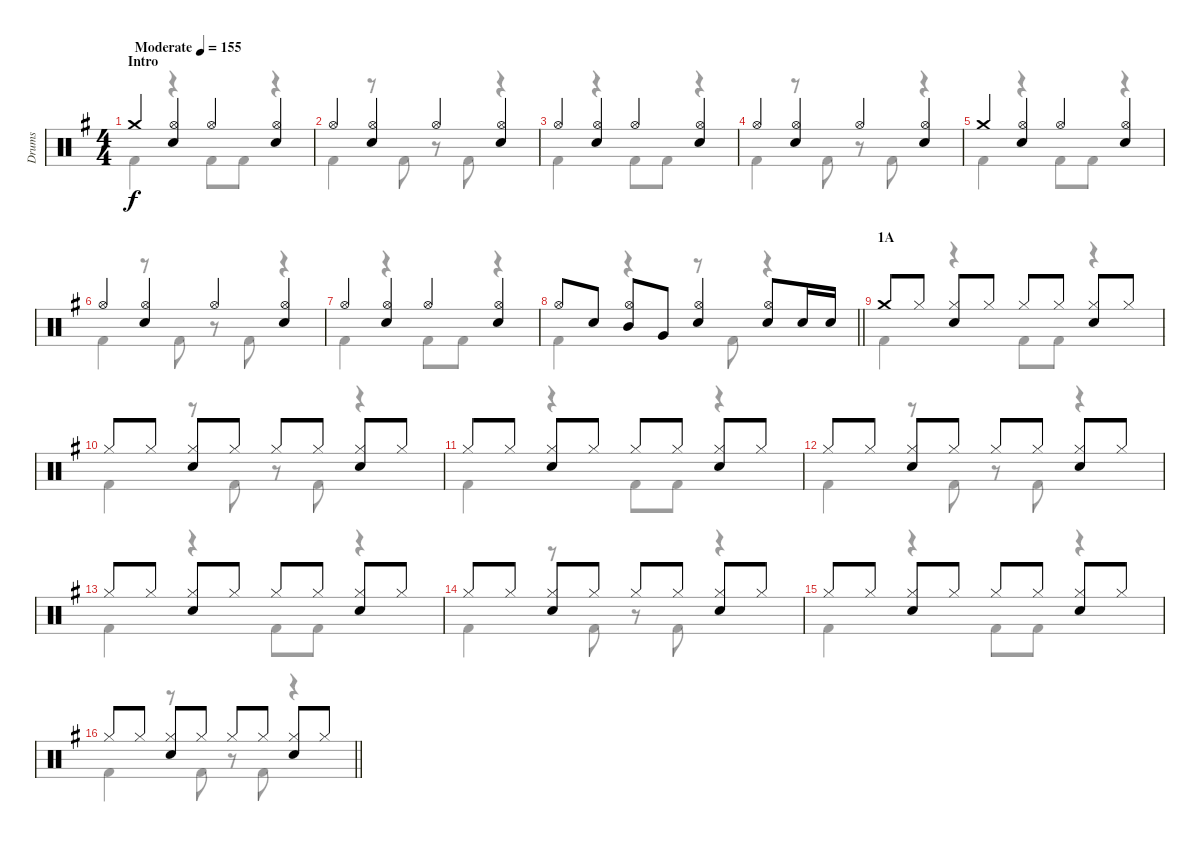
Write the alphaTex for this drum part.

\track ("Drums" "Drums") {instrument percussion}
\staff {score}
\articulation defaults
\voice
\ts (4 4)
\section ("" "Intro")
\tempo (155 "Moderate")
\clef neutral
\ks g "Crash medium (hit)".4{dy f}
("Hi-Hat (open)" "Electric Snare (hit)").4 "Hi-Hat (open)".4 ("Hi-Hat (open)" "Electric Snare (hit)").4 |
"Hi-Hat (open)".4 ("Hi-Hat (open)" "Electric Snare (hit)").4 "Hi-Hat (open)".4 ("Hi-Hat (open)" "Electric Snare (hit)").4 |
"Hi-Hat (open)".4 ("Hi-Hat (open)" "Electric Snare (hit)").4 "Hi-Hat (open)".4 ("Hi-Hat (open)" "Electric Snare (hit)").4 |
"Hi-Hat (open)".4 ("Hi-Hat (open)" "Electric Snare (hit)").4 "Hi-Hat (open)".4 ("Hi-Hat (open)" "Electric Snare (hit)").4 |
"Crash medium (hit)".4 ("Hi-Hat (open)" "Electric Snare (hit)").4 "Hi-Hat (open)".4 ("Hi-Hat (open)" "Electric Snare (hit)").4 |
"Hi-Hat (open)".4 ("Hi-Hat (open)" "Electric Snare (hit)").4 "Hi-Hat (open)".4 ("Hi-Hat (open)" "Electric Snare (hit)").4 |
"Hi-Hat (open)".4 ("Hi-Hat (open)" "Electric Snare (hit)").4 "Hi-Hat (open)".4 ("Hi-Hat (open)" "Electric Snare (hit)").4 |
\barLineRight lightlight "Hi-Hat (open)".8 "Electric Snare (hit)".8
("Hi-Hat (open)" "Mid Tom (hit)").8 "Very Low Tom (hit)".8 ("Hi-Hat (open)" "Electric Snare (hit)").4 ("Hi-Hat (open)" "Electric Snare (hit)").8 "Electric Snare (hit)".16 "Electric Snare (hit)".16 |
\section ("" "1A")
"Crash medium (hit)".8 "Hi-Hat (closed)".8 ("Hi-Hat (closed)" "Electric Snare (hit)").8 "Hi-Hat (closed)".8 "Hi-Hat (closed)".8 "Hi-Hat (closed)".8 ("Hi-Hat (closed)" "Electric Snare (hit)").8 "Hi-Hat (closed)".8 |
"Hi-Hat (closed)".8 "Hi-Hat (closed)".8 ("Hi-Hat (closed)" "Electric Snare (hit)").8 "Hi-Hat (closed)".8 "Hi-Hat (closed)".8 "Hi-Hat (closed)".8 ("Hi-Hat (closed)" "Electric Snare (hit)").8 "Hi-Hat (closed)".8 |
"Hi-Hat (closed)".8 "Hi-Hat (closed)".8 ("Hi-Hat (closed)" "Electric Snare (hit)").8 "Hi-Hat (closed)".8 "Hi-Hat (closed)".8 "Hi-Hat (closed)".8 ("Hi-Hat (closed)" "Electric Snare (hit)").8 "Hi-Hat (closed)".8 |
"Hi-Hat (closed)".8 "Hi-Hat (closed)".8 ("Hi-Hat (closed)" "Electric Snare (hit)").8 "Hi-Hat (closed)".8 "Hi-Hat (closed)".8 "Hi-Hat (closed)".8 ("Hi-Hat (closed)" "Electric Snare (hit)").8 "Hi-Hat (closed)".8 |
"Hi-Hat (closed)".8 "Hi-Hat (closed)".8 ("Hi-Hat (closed)" "Electric Snare (hit)").8 "Hi-Hat (closed)".8 "Hi-Hat (closed)".8 "Hi-Hat (closed)".8 ("Hi-Hat (closed)" "Electric Snare (hit)").8 "Hi-Hat (closed)".8 |
"Hi-Hat (closed)".8 "Hi-Hat (closed)".8 ("Hi-Hat (closed)" "Electric Snare (hit)").8 "Hi-Hat (closed)".8 "Hi-Hat (closed)".8 "Hi-Hat (closed)".8 ("Hi-Hat (closed)" "Electric Snare (hit)").8 "Hi-Hat (closed)".8 |
"Hi-Hat (closed)".8 "Hi-Hat (closed)".8 ("Hi-Hat (closed)" "Electric Snare (hit)").8 "Hi-Hat (closed)".8 "Hi-Hat (closed)".8 "Hi-Hat (closed)".8 ("Hi-Hat (closed)" "Electric Snare (hit)").8 "Hi-Hat (closed)".8 |
\barLineRight lightlight "Hi-Hat (closed)".8 "Hi-Hat (closed)".8
("Hi-Hat (closed)" "Electric Snare (hit)").8 "Hi-Hat (closed)".8 "Hi-Hat (closed)".8 "Hi-Hat (closed)".8 ("Hi-Hat (closed)" "Electric Snare (hit)").8 "Hi-Hat (closed)".8
\voice
\clef neutral
\ottava regular
\simile none
\ks g "Kick (hit) 2".4{dy f}
r.4 "Kick (hit) 2".8 "Kick (hit) 2".8 r.4 |
"Kick (hit) 2".4 r.8 "Kick (hit) 2".8 r.8 "Kick (hit) 2".8 r.4 |
"Kick (hit) 2".4 r.4 "Kick (hit) 2".8 "Kick (hit) 2".8 r.4 |
"Kick (hit) 2".4 r.8 "Kick (hit) 2".8 r.8 "Kick (hit) 2".8 r.4 |
"Kick (hit) 2".4 r.4 "Kick (hit) 2".8 "Kick (hit) 2".8 r.4 |
"Kick (hit) 2".4 r.8 "Kick (hit) 2".8 r.8 "Kick (hit) 2".8 r.4 |
"Kick (hit) 2".4 r.4 "Kick (hit) 2".8 "Kick (hit) 2".8 r.4 |
\barLineRight lightlight "Kick (hit) 2".4
r.4 r.8 "Kick (hit) 2".8 r.4 |
"Kick (hit) 2".4 r.4 "Kick (hit) 2".8 "Kick (hit) 2".8 r.4 |
"Kick (hit) 2".4 r.8 "Kick (hit) 2".8 r.8 "Kick (hit) 2".8 r.4 |
"Kick (hit) 2".4 r.4 "Kick (hit) 2".8 "Kick (hit) 2".8 r.4 |
"Kick (hit) 2".4 r.8 "Kick (hit) 2".8 r.8 "Kick (hit) 2".8 r.4 |
"Kick (hit) 2".4 r.4 "Kick (hit) 2".8 "Kick (hit) 2".8 r.4 |
"Kick (hit) 2".4 r.8 "Kick (hit) 2".8 r.8 "Kick (hit) 2".8 r.4 |
"Kick (hit) 2".4 r.4 "Kick (hit) 2".8 "Kick (hit) 2".8 r.4 |
\barLineRight lightlight "Kick (hit) 2".4
r.8 "Kick (hit) 2".8 r.8 "Kick (hit) 2".8 r.4
